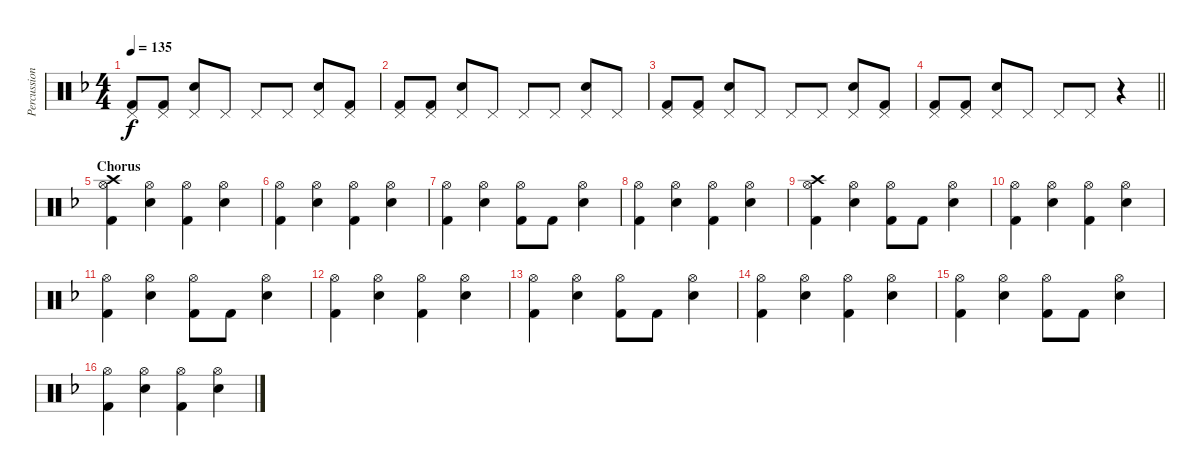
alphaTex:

\track ("Percussion" "Percussion") {instrument percussion}
\staff {score}
\articulation defaults
\ts (4 4)
\tempo 135
\clef neutral
\ks f
("Pedal Hi-Hat (hit)" "Kick (hit) 2").8{dy f} ("Pedal Hi-Hat (hit)" "Kick (hit) 2").8 ("Pedal Hi-Hat (hit)" "Snare (hit) 2").8 "Pedal Hi-Hat (hit)".8 "Pedal Hi-Hat (hit)".8 "Pedal Hi-Hat (hit)".8 ("Pedal Hi-Hat (hit)" "Snare (hit) 2").8 ("Pedal Hi-Hat (hit)" "Kick (hit) 2").8 |
("Pedal Hi-Hat (hit)" "Kick (hit) 2").8 ("Pedal Hi-Hat (hit)" "Kick (hit) 2").8 ("Pedal Hi-Hat (hit)" "Snare (hit) 2").8 "Pedal Hi-Hat (hit)".8 "Pedal Hi-Hat (hit)".8 "Pedal Hi-Hat (hit)".8 ("Pedal Hi-Hat (hit)" "Snare (hit) 2").8 "Pedal Hi-Hat (hit)".8 |
("Pedal Hi-Hat (hit)" "Kick (hit) 2").8 ("Pedal Hi-Hat (hit)" "Kick (hit) 2").8 ("Pedal Hi-Hat (hit)" "Snare (hit) 2").8 "Pedal Hi-Hat (hit)".8 "Pedal Hi-Hat (hit)".8 "Pedal Hi-Hat (hit)".8 ("Pedal Hi-Hat (hit)" "Snare (hit) 2").8 ("Pedal Hi-Hat (hit)" "Kick (hit) 2").8 |
\barLineRight lightlight
("Pedal Hi-Hat (hit)" "Kick (hit) 2").8 ("Pedal Hi-Hat (hit)" "Kick (hit) 2").8 ("Pedal Hi-Hat (hit)" "Snare (hit) 2").8 "Pedal Hi-Hat (hit)".8 "Pedal Hi-Hat (hit)".8 "Pedal Hi-Hat (hit)".8 r.4 |
\section ("" "Chorus")
("Crash high (hit)" "Hi-Hat (open)" "Kick (hit) 2").4 ("Hi-Hat (open)" "Snare (hit) 2").4 ("Hi-Hat (open)" "Kick (hit) 2").4 ("Hi-Hat (open)" "Snare (hit) 2").4 |
("Hi-Hat (open)" "Kick (hit) 2").4 ("Hi-Hat (open)" "Snare (hit) 2").4 ("Hi-Hat (open)" "Kick (hit) 2").4 ("Hi-Hat (open)" "Snare (hit) 2").4 |
("Hi-Hat (open)" "Kick (hit) 2").4 ("Hi-Hat (open)" "Snare (hit) 2").4 ("Hi-Hat (open)" "Kick (hit) 2").8 "Kick (hit) 2".8 ("Hi-Hat (open)" "Snare (hit) 2").4 |
("Hi-Hat (open)" "Kick (hit) 2").4 ("Hi-Hat (open)" "Snare (hit) 2").4 ("Hi-Hat (open)" "Kick (hit) 2").4 ("Hi-Hat (open)" "Snare (hit) 2").4 |
("Crash high (hit)" "Hi-Hat (open)" "Kick (hit) 2").4 ("Hi-Hat (open)" "Snare (hit) 2").4 ("Hi-Hat (open)" "Kick (hit) 2").8 "Kick (hit) 2".8 ("Hi-Hat (open)" "Snare (hit) 2").4 |
("Hi-Hat (open)" "Kick (hit) 2").4 ("Hi-Hat (open)" "Snare (hit) 2").4 ("Hi-Hat (open)" "Kick (hit) 2").4 ("Hi-Hat (open)" "Snare (hit) 2").4 |
("Hi-Hat (open)" "Kick (hit) 2").4 ("Hi-Hat (open)" "Snare (hit) 2").4 ("Hi-Hat (open)" "Kick (hit) 2").8 "Kick (hit) 2".8 ("Hi-Hat (open)" "Snare (hit) 2").4 |
("Hi-Hat (open)" "Kick (hit) 2").4 ("Hi-Hat (open)" "Snare (hit) 2").4 ("Hi-Hat (open)" "Kick (hit) 2").4 ("Hi-Hat (open)" "Snare (hit) 2").4 |
("Hi-Hat (open)" "Kick (hit) 2").4 ("Hi-Hat (open)" "Snare (hit) 2").4 ("Hi-Hat (open)" "Kick (hit) 2").8 "Kick (hit) 2".8 ("Hi-Hat (open)" "Snare (hit) 2").4 |
("Hi-Hat (open)" "Kick (hit) 2").4 ("Hi-Hat (open)" "Snare (hit) 2").4 ("Hi-Hat (open)" "Kick (hit) 2").4 ("Hi-Hat (open)" "Snare (hit) 2").4 |
("Hi-Hat (open)" "Kick (hit) 2").4 ("Hi-Hat (open)" "Snare (hit) 2").4 ("Hi-Hat (open)" "Kick (hit) 2").8 "Kick (hit) 2".8 ("Hi-Hat (open)" "Snare (hit) 2").4 |
("Hi-Hat (open)" "Kick (hit) 2").4 ("Hi-Hat (open)" "Snare (hit) 2").4 ("Hi-Hat (open)" "Kick (hit) 2").4 ("Hi-Hat (open)" "Snare (hit) 2").4
